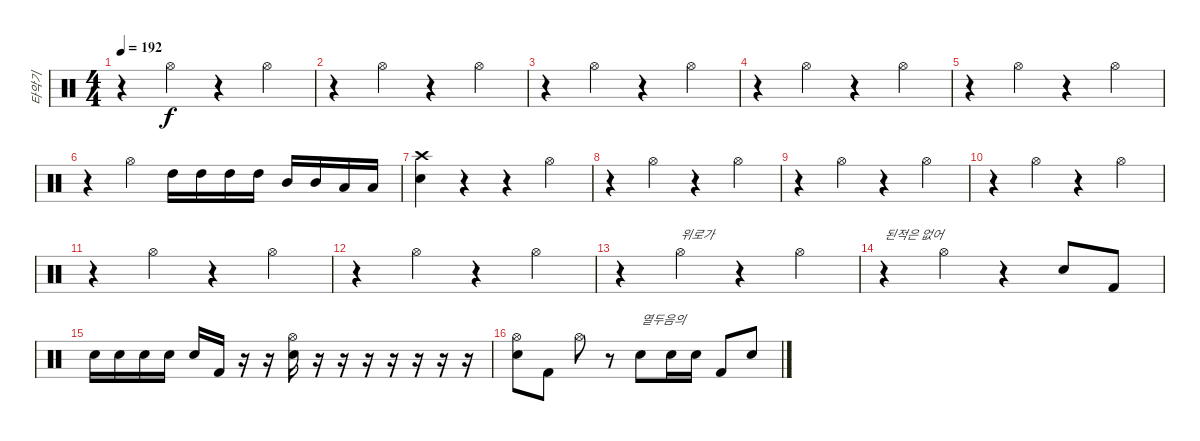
\track ("타악기" "타악기") {instrument percussion}
\staff {score}
\articulation defaults
\ts (4 4)
\tempo 192
\clef neutral
\ks c
r.4{dy f} "Hi-Hat (open)".4 r.4 "Hi-Hat (open)".4 |
r.4 "Hi-Hat (open)".4 r.4 "Hi-Hat (open)".4 |
r.4 "Hi-Hat (open)".4 r.4 "Hi-Hat (open)".4 |
r.4 "Hi-Hat (open)".4 r.4 "Hi-Hat (open)".4 |
r.4 "Hi-Hat (open)".4 r.4 "Hi-Hat (open)".4 |
r.4 "Hi-Hat (open)".4 "High Tom (hit)".16 "High Tom (hit)".16 "High Tom (hit)".16 "High Tom (hit)".16 "Mid Tom (hit)".16 "Mid Tom (hit)".16 "Low Tom (hit)".16 "Low Tom (hit)".16 |
("Crash high (hit)" "Snare (hit) 2").4 r.4 r.4 "Hi-Hat (open)".4 |
r.4 "Hi-Hat (open)".4 r.4 "Hi-Hat (open)".4 |
r.4 "Hi-Hat (open)".4 r.4 "Hi-Hat (open)".4 |
r.4 "Hi-Hat (open)".4 r.4 "Hi-Hat (open)".4 |
r.4 "Hi-Hat (open)".4 r.4 "Hi-Hat (open)".4 |
r.4 "Hi-Hat (open)".4 r.4 "Hi-Hat (open)".4 |
r.4 "Hi-Hat (open)".4{txt "위로가"} r.4 "Hi-Hat (open)".4 |
r.4{txt "된적은 없어"} "Hi-Hat (open)".4 r.4 "Snare (hit) 2".8 "Kick (hit) 2".8 |
"Snare (hit) 2".16 "Snare (hit) 2".16 "Snare (hit) 2".16 "Snare (hit) 2".16 "Snare (hit) 2".16 "Kick (hit) 2".16 r.16 r.16 ("Hi-Hat (open)" "Snare (hit) 2").16 r.16 r.16 r.16 r.16 r.16 r.16 r.16 |
("Hi-Hat (open)" "Snare (hit) 2").8 "Kick (hit) 2".8 "Hi-Hat (open)".8 r.8 "Snare (hit) 2".8{txt "열두음의"} "Snare (hit) 2".16 "Snare (hit) 2".16 "Kick (hit) 2".8 "Snare (hit) 2".8
